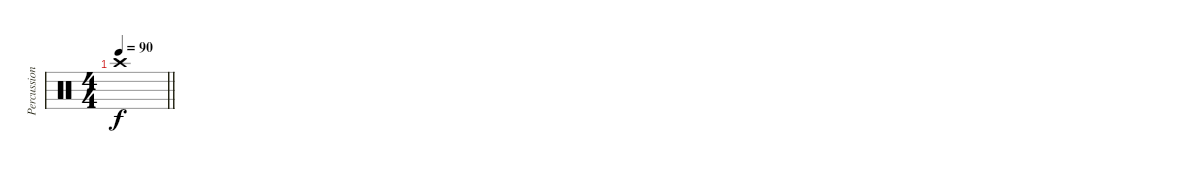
\track ("Percussion" "Percussion") {instrument percussion}
\staff {score}
\articulation defaults
\ts (4 4)
\tempo 90
\clef neutral
\barLineRight lightlight
\ks c "Crash high (hit)".1{dy f}
